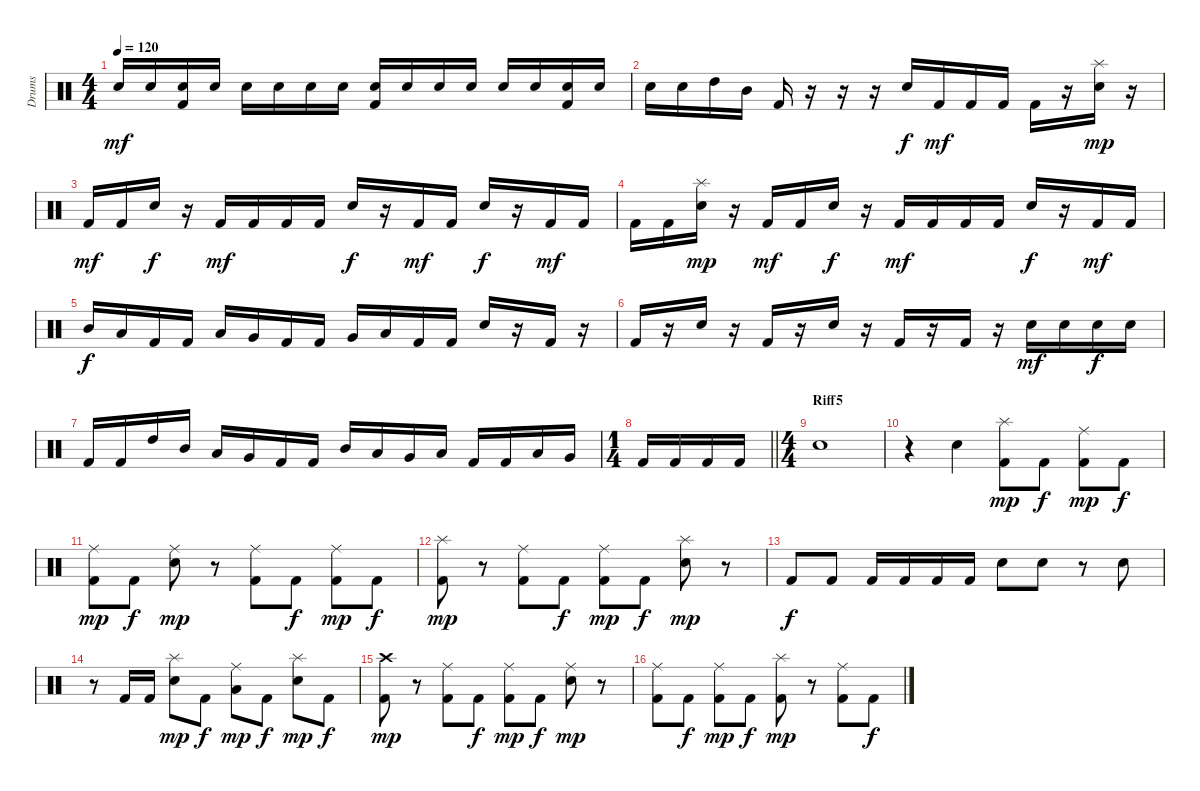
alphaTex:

\track ("Drums" "Drums") {instrument percussion}
\staff {score}
\articulation defaults
\ts (4 4)
\tempo 120
\clef neutral
\ks c "Snare (hit) 2".16{dy mf} "Snare (hit) 2".16
("Kick (hit) 2" "Snare (hit) 2").16 "Snare (hit) 2".16 "Snare (hit) 2".16 "Snare (hit) 2".16 "Snare (hit) 2".16 "Snare (hit) 2".16 ("Kick (hit) 2" "Snare (hit) 2").16 "Snare (hit) 2".16 "Snare (hit) 2".16 "Snare (hit) 2".16 "Snare (hit) 2".16 "Snare (hit) 2".16 ("Kick (hit) 2" "Snare (hit) 2").16 "Snare (hit) 2".16 |
"Snare (hit) 2".16 "Snare (hit) 2".16 "High Tom (hit)".16 "Mid Tom (hit)".16 "Kick (hit) 2".16 r.16 r.16 r.16 "Snare (hit) 2".16{dy f} "Kick (hit) 2".16{dy mf} "Kick (hit) 2".16 "Kick (hit) 2".16 "Kick (hit) 2".16 r.16 ("Splash (hit)" "Snare (hit) 2").16{dy mp} r.16 |
"Kick (hit) 2".16{dy mf} "Kick (hit) 2".16 "Snare (hit) 2".16{dy f} r.16 "Kick (hit) 2".16{dy mf} "Kick (hit) 2".16 "Kick (hit) 2".16 "Kick (hit) 2".16 "Snare (hit) 2".16{dy f} r.16 "Kick (hit) 2".16{dy mf} "Kick (hit) 2".16 "Snare (hit) 2".16{dy f} r.16 "Kick (hit) 2".16{dy mf} "Kick (hit) 2".16 |
"Kick (hit) 2".16 "Kick (hit) 2".16 ("Splash (hit)" "Snare (hit) 2").16{dy mp} r.16 "Kick (hit) 2".16{dy mf} "Kick (hit) 2".16 "Snare (hit) 2".16{dy f} r.16 "Kick (hit) 2".16{dy mf} "Kick (hit) 2".16 "Kick (hit) 2".16 "Kick (hit) 2".16 "Snare (hit) 2".16{dy f} r.16 "Kick (hit) 2".16{dy mf} "Kick (hit) 2".16 |
"Mid Tom (hit)".16{dy f} "Low Tom (hit)".16 "Kick (hit) 2".16 "Kick (hit) 2".16 "Low Tom (hit)".16 "Very Low Tom (hit)".16 "Kick (hit) 2".16 "Kick (hit) 2".16 "Very Low Tom (hit)".16 "Low Floor Tom (hit)".16 "Kick (hit) 2".16 "Kick (hit) 2".16 "Snare (hit) 2".16 r.16 "Kick (hit) 2".16 r.16 |
"Kick (hit) 2".16 r.16 "Snare (hit) 2".16 r.16 "Kick (hit) 2".16 r.16 "Snare (hit) 2".16 r.16 "Kick (hit) 2".16 r.16 "Kick (hit) 2".16 r.16 "Snare (hit) 2".16{dy mf} "Snare (hit) 2".16 "Snare (hit) 2".16{dy f} "Snare (hit) 2".16 |
"Kick (hit) 2".16 "Kick (hit) 2".16 "High Tom (hit)".16 "Mid Tom (hit)".16 "Low Tom (hit)".16 "Very Low Tom (hit)".16 "Kick (hit) 2".16 "Kick (hit) 2".16 "Mid Tom (hit)".16 "Low Tom (hit)".16 "Very Low Tom (hit)".16 "Low Floor Tom (hit)".16 "Kick (hit) 2".16 "Kick (hit) 2".16 "Low Tom (hit)".16 "Very Low Tom (hit)".16 |
\ts (1 4)
\barLineRight lightlight "Kick (hit) 2".16 "Kick (hit) 2".16 "Kick (hit) 2".16 "Kick (hit) 2".16
|
\ts (4 4)
\section ("" "Riff5")
"Snare (hit) 2".1 |
r.4 "Snare (hit) 2".4 ("Kick (hit) 2" "Splash (hit)").8{dy mp} "Kick (hit) 2".8{dy f} ("Kick (hit) 2" "Ride (middle)").8{dy mp} "Kick (hit) 2".8{dy f} |
("Kick (hit) 2" "Ride (middle)").8{dy mp} "Kick (hit) 2".8{dy f} ("Ride (middle)" "Snare (hit) 2").8{dy mp} r.8 ("Kick (hit) 2" "Ride (middle)").8 "Kick (hit) 2".8{dy f} ("Kick (hit) 2" "Ride (middle)").8{dy mp} "Kick (hit) 2".8{dy f} |
("Kick (hit) 2" "Splash (hit)").8{dy mp} r.8 ("Kick (hit) 2" "Ride (middle)").8 "Kick (hit) 2".8{dy f} ("Kick (hit) 2" "Ride (middle)").8{dy mp} "Kick (hit) 2".8{dy f} ("Splash (hit)" "Snare (hit) 2").8{dy mp} r.8 |
"Kick (hit) 2".8{dy f} "Kick (hit) 2".8 "Kick (hit) 2".16 "Kick (hit) 2".16 "Kick (hit) 2".16 "Kick (hit) 2".16 "Snare (hit) 2".8 "Snare (hit) 2".8 r.8 "Snare (hit) 2".8 |
r.8 "Kick (hit) 2".16 "Kick (hit) 2".16 ("Splash (hit)" "Snare (hit) 2").8{dy mp} "Kick (hit) 2".8{dy f} ("Ride (middle)" "Low Tom (hit)").8{dy mp} "Kick (hit) 2".8{dy f} ("Splash (hit)" "Snare (hit) 2").8{dy mp} "Kick (hit) 2".8{dy f} |
("Kick (hit) 2" "Crash high (hit)").8{dy mp} r.8 ("Kick (hit) 2" "Ride (middle)").8 "Kick (hit) 2".8{dy f} ("Kick (hit) 2" "Ride (middle)").8{dy mp} "Kick (hit) 2".8{dy f} ("Ride (middle)" "Snare (hit) 2").8{dy mp} r.8 |
("Kick (hit) 2" "Ride (middle)").8 "Kick (hit) 2".8{dy f} ("Kick (hit) 2" "Ride (middle)").8{dy mp} "Kick (hit) 2".8{dy f} ("Kick (hit) 2" "Splash (hit)").8{dy mp} r.8 ("Kick (hit) 2" "Ride (middle)").8 "Kick (hit) 2".8{dy f}
